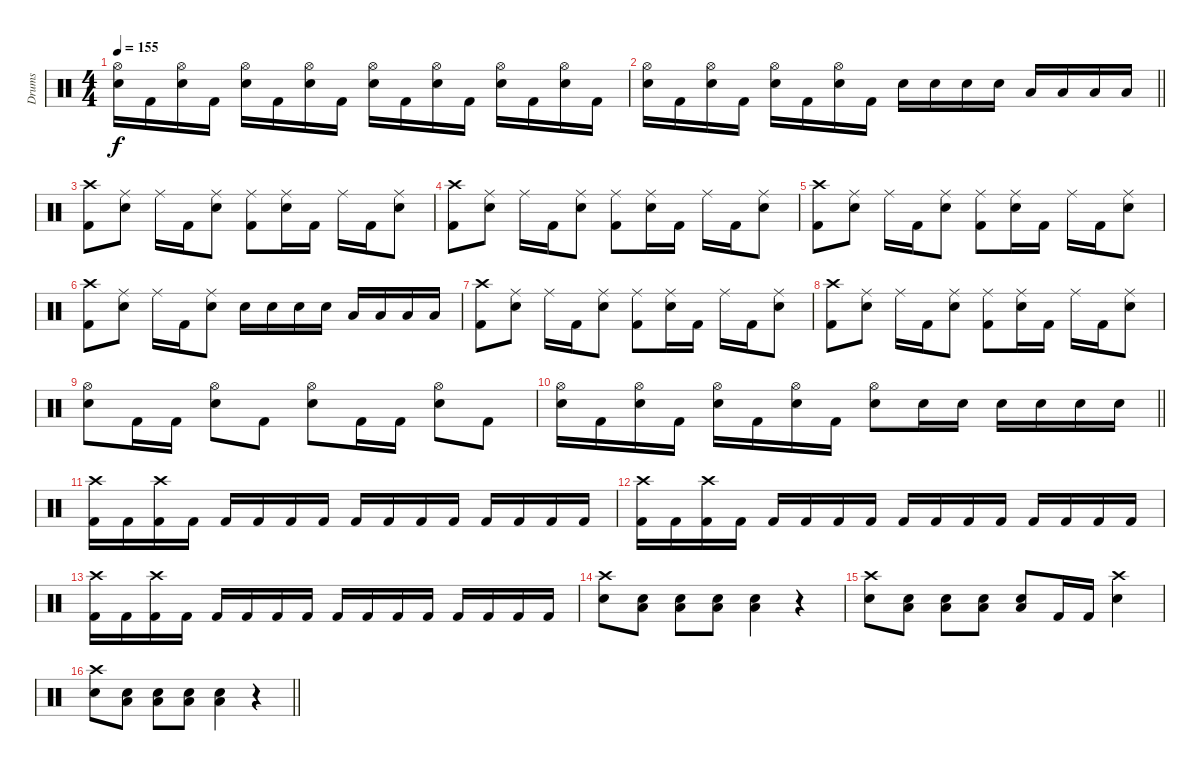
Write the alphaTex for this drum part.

\track ("Drums" "Drums") {instrument percussion}
\staff {score}
\articulation defaults
\ts (4 4)
\tempo 155
\clef neutral
\ks c
("Hi-Hat (open)" "Snare (hit) 2").16{dy f} "Kick (hit) 2".16 ("Hi-Hat (open)" "Snare (hit) 2").16 "Kick (hit) 2".16 ("Hi-Hat (open)" "Snare (hit) 2").16 "Kick (hit) 2".16 ("Hi-Hat (open)" "Snare (hit) 2").16 "Kick (hit) 2".16 ("Hi-Hat (open)" "Snare (hit) 2").16 "Kick (hit) 2".16 ("Hi-Hat (open)" "Snare (hit) 2").16 "Kick (hit) 2".16 ("Hi-Hat (open)" "Snare (hit) 2").16 "Kick (hit) 2".16 ("Hi-Hat (open)" "Snare (hit) 2").16 "Kick (hit) 2".16 |
\barLineRight lightlight
("Hi-Hat (open)" "Snare (hit) 2").16 "Kick (hit) 2".16 ("Hi-Hat (open)" "Snare (hit) 2").16 "Kick (hit) 2".16 ("Hi-Hat (open)" "Snare (hit) 2").16 "Kick (hit) 2".16 ("Hi-Hat (open)" "Snare (hit) 2").16 "Kick (hit) 2".16 "Snare (hit) 2".16 "Snare (hit) 2".16 "Snare (hit) 2".16 "Snare (hit) 2".16 "Low Tom (hit)".16 "Low Tom (hit)".16 "Low Floor Tom (hit)".16 "Low Floor Tom (hit)".16 |
("Crash high (hit)" "Kick (hit) 2").8 ("Ride (middle)" "Snare (hit) 2").8 "Ride (middle)".16 "Kick (hit) 2".16 ("Ride (middle)" "Snare (hit) 2").8 ("Ride (middle)" "Kick (hit) 2").8 ("Ride (middle)" "Snare (hit) 2").16 "Kick (hit) 2".16 "Ride (middle)".16 "Kick (hit) 2".16 ("Ride (middle)" "Snare (hit) 2").8 |
("Crash high (hit)" "Kick (hit) 2").8 ("Ride (middle)" "Snare (hit) 2").8 "Ride (middle)".16 "Kick (hit) 2".16 ("Ride (middle)" "Snare (hit) 2").8 ("Ride (middle)" "Kick (hit) 2").8 ("Ride (middle)" "Snare (hit) 2").16 "Kick (hit) 2".16 "Ride (middle)".16 "Kick (hit) 2".16 ("Ride (middle)" "Snare (hit) 2").8 |
("Crash high (hit)" "Kick (hit) 2").8 ("Ride (middle)" "Snare (hit) 2").8 "Ride (middle)".16 "Kick (hit) 2".16 ("Ride (middle)" "Snare (hit) 2").8 ("Ride (middle)" "Kick (hit) 2").8 ("Ride (middle)" "Snare (hit) 2").16 "Kick (hit) 2".16 "Ride (middle)".16 "Kick (hit) 2".16 ("Ride (middle)" "Snare (hit) 2").8 |
("Crash high (hit)" "Kick (hit) 2").8 ("Ride (middle)" "Snare (hit) 2").8 "Ride (middle)".16 "Kick (hit) 2".16 ("Ride (middle)" "Snare (hit) 2").8 "Snare (hit) 2".16 "Snare (hit) 2".16 "Snare (hit) 2".16 "Snare (hit) 2".16 "Low Tom (hit)".16 "Low Tom (hit)".16 "Low Floor Tom (hit)".16 "Low Floor Tom (hit)".16 |
("Crash high (hit)" "Kick (hit) 2").8 ("Ride (middle)" "Snare (hit) 2").8 "Ride (middle)".16 "Kick (hit) 2".16 ("Ride (middle)" "Snare (hit) 2").8 ("Ride (middle)" "Kick (hit) 2").8 ("Ride (middle)" "Snare (hit) 2").16 "Kick (hit) 2".16 "Ride (middle)".16 "Kick (hit) 2".16 ("Ride (middle)" "Snare (hit) 2").8 |
("Crash high (hit)" "Kick (hit) 2").8 ("Ride (middle)" "Snare (hit) 2").8 "Ride (middle)".16 "Kick (hit) 2".16 ("Ride (middle)" "Snare (hit) 2").8 ("Ride (middle)" "Kick (hit) 2").8 ("Ride (middle)" "Snare (hit) 2").16 "Kick (hit) 2".16 "Ride (middle)".16 "Kick (hit) 2".16 ("Ride (middle)" "Snare (hit) 2").8 |
("Hi-Hat (open)" "Snare (hit) 2").8 "Kick (hit) 2".16 "Kick (hit) 2".16 ("Hi-Hat (open)" "Snare (hit) 2").8 "Kick (hit) 2".8 ("Hi-Hat (open)" "Snare (hit) 2").8 "Kick (hit) 2".16 "Kick (hit) 2".16 ("Hi-Hat (open)" "Snare (hit) 2").8 "Kick (hit) 2".8 |
\barLineRight lightlight
("Hi-Hat (open)" "Snare (hit) 2").16 "Kick (hit) 2".16 ("Hi-Hat (open)" "Snare (hit) 2").16 "Kick (hit) 2".16 ("Hi-Hat (open)" "Snare (hit) 2").16 "Kick (hit) 2".16 ("Hi-Hat (open)" "Snare (hit) 2").16 "Kick (hit) 2".16 ("Hi-Hat (open)" "Snare (hit) 2").8 "Snare (hit) 2".16 "Snare (hit) 2".16 "Snare (hit) 2".16 "Snare (hit) 2".16 "Snare (hit) 2".16 "Snare (hit) 2".16 |
("Crash high (hit)" "Kick (hit) 2").16 "Kick (hit) 2".16 ("Crash high (hit)" "Kick (hit) 2").16 "Kick (hit) 2".16 "Kick (hit) 2".16 "Kick (hit) 2".16 "Kick (hit) 2".16 "Kick (hit) 2".16 "Kick (hit) 2".16 "Kick (hit) 2".16 "Kick (hit) 2".16 "Kick (hit) 2".16 "Kick (hit) 2".16 "Kick (hit) 2".16 "Kick (hit) 2".16 "Kick (hit) 2".16 |
("Crash high (hit)" "Kick (hit) 2").16 "Kick (hit) 2".16 ("Crash high (hit)" "Kick (hit) 2").16 "Kick (hit) 2".16 "Kick (hit) 2".16 "Kick (hit) 2".16 "Kick (hit) 2".16 "Kick (hit) 2".16 "Kick (hit) 2".16 "Kick (hit) 2".16 "Kick (hit) 2".16 "Kick (hit) 2".16 "Kick (hit) 2".16 "Kick (hit) 2".16 "Kick (hit) 2".16 "Kick (hit) 2".16 |
("Crash high (hit)" "Kick (hit) 2").16 "Kick (hit) 2".16 ("Crash high (hit)" "Kick (hit) 2").16 "Kick (hit) 2".16 "Kick (hit) 2".16 "Kick (hit) 2".16 "Kick (hit) 2".16 "Kick (hit) 2".16 "Kick (hit) 2".16 "Kick (hit) 2".16 "Kick (hit) 2".16 "Kick (hit) 2".16 "Kick (hit) 2".16 "Kick (hit) 2".16 "Kick (hit) 2".16 "Kick (hit) 2".16 |
("Crash high (hit)" "Snare (hit) 2").8 ("Snare (hit) 2" "Low Tom (hit)").8 ("Snare (hit) 2" "Low Tom (hit)").8 ("Snare (hit) 2" "Low Tom (hit)").8 ("Snare (hit) 2" "Low Tom (hit)").4 r.4 |
("Crash high (hit)" "Snare (hit) 2").8 ("Snare (hit) 2" "Low Tom (hit)").8 ("Snare (hit) 2" "Low Tom (hit)").8 ("Snare (hit) 2" "Low Tom (hit)").8 ("Snare (hit) 2" "Low Tom (hit)").8 "Kick (hit) 2".16 "Kick (hit) 2".16 ("Crash high (hit)" "Snare (hit) 2").4 |
\barLineRight lightlight
("Crash high (hit)" "Snare (hit) 2").8 ("Snare (hit) 2" "Low Tom (hit)").8 ("Snare (hit) 2" "Low Tom (hit)").8 ("Snare (hit) 2" "Low Tom (hit)").8 ("Snare (hit) 2" "Low Tom (hit)").4 r.4
